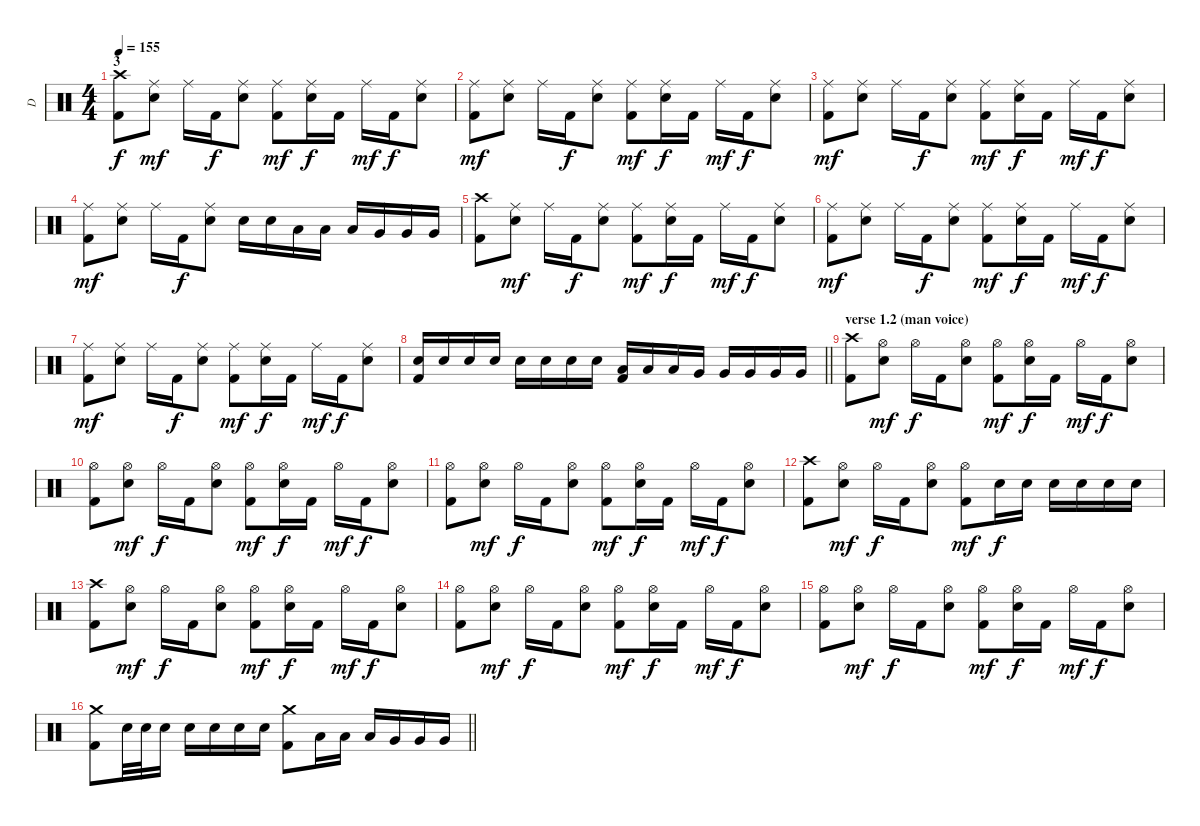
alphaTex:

\track ("D" "D") {instrument percussion}
\staff {score}
\articulation defaults
\ts (4 4)
\section ("" "3")
\tempo 155
\clef neutral
\ks c
("Kick (hit) 2" "Crash high (hit)").8{dy f} ("Electric Snare (hit)" "Ride (middle)").8{dy mf} "Ride (middle)".16 "Kick (hit) 2".16{dy f} ("Electric Snare (hit)" "Ride (middle)").8 ("Kick (hit) 2" "Ride (middle)").8{dy mf} ("Electric Snare (hit)" "Ride (middle)").16{dy f} "Kick (hit) 2".16 "Ride (middle)".16{dy mf} "Kick (hit) 2".16{dy f} ("Electric Snare (hit)" "Ride (middle)").8 |
("Kick (hit) 2" "Ride (middle)").8{dy mf} ("Electric Snare (hit)" "Ride (middle)").8 "Ride (middle)".16 "Kick (hit) 2".16{dy f} ("Electric Snare (hit)" "Ride (middle)").8 ("Kick (hit) 2" "Ride (middle)").8{dy mf} ("Electric Snare (hit)" "Ride (middle)").16{dy f} "Kick (hit) 2".16 "Ride (middle)".16{dy mf} "Kick (hit) 2".16{dy f} ("Electric Snare (hit)" "Ride (middle)").8 |
("Kick (hit) 2" "Ride (middle)").8{dy mf} ("Electric Snare (hit)" "Ride (middle)").8 "Ride (middle)".16 "Kick (hit) 2".16{dy f} ("Electric Snare (hit)" "Ride (middle)").8 ("Kick (hit) 2" "Ride (middle)").8{dy mf} ("Electric Snare (hit)" "Ride (middle)").16{dy f} "Kick (hit) 2".16 "Ride (middle)".16{dy mf} "Kick (hit) 2".16{dy f} ("Electric Snare (hit)" "Ride (middle)").8 |
("Kick (hit) 2" "Ride (middle)").8{dy mf} ("Electric Snare (hit)" "Ride (middle)").8 "Ride (middle)".16 "Kick (hit) 2".16{dy f} ("Electric Snare (hit)" "Ride (middle)").8 "Electric Snare (hit)".16 "Electric Snare (hit)".16 "Low Tom (hit)".16 "Low Tom (hit)".16 "Low Tom (hit)".16 "Very Low Tom (hit)".16 "Very Low Tom (hit)".16 "Very Low Tom (hit)".16 |
("Kick (hit) 2" "Crash high (hit)").8 ("Electric Snare (hit)" "Ride (middle)").8{dy mf} "Ride (middle)".16 "Kick (hit) 2".16{dy f} ("Electric Snare (hit)" "Ride (middle)").8 ("Kick (hit) 2" "Ride (middle)").8{dy mf} ("Electric Snare (hit)" "Ride (middle)").16{dy f} "Kick (hit) 2".16 "Ride (middle)".16{dy mf} "Kick (hit) 2".16{dy f} ("Electric Snare (hit)" "Ride (middle)").8 |
("Kick (hit) 2" "Ride (middle)").8{dy mf} ("Electric Snare (hit)" "Ride (middle)").8 "Ride (middle)".16 "Kick (hit) 2".16{dy f} ("Electric Snare (hit)" "Ride (middle)").8 ("Kick (hit) 2" "Ride (middle)").8{dy mf} ("Electric Snare (hit)" "Ride (middle)").16{dy f} "Kick (hit) 2".16 "Ride (middle)".16{dy mf} "Kick (hit) 2".16{dy f} ("Electric Snare (hit)" "Ride (middle)").8 |
("Kick (hit) 2" "Ride (middle)").8{dy mf} ("Electric Snare (hit)" "Ride (middle)").8 "Ride (middle)".16 "Kick (hit) 2".16{dy f} ("Electric Snare (hit)" "Ride (middle)").8 ("Kick (hit) 2" "Ride (middle)").8{dy mf} ("Electric Snare (hit)" "Ride (middle)").16{dy f} "Kick (hit) 2".16 "Ride (middle)".16{dy mf} "Kick (hit) 2".16{dy f} ("Electric Snare (hit)" "Ride (middle)").8 |
\barLineRight lightlight
("Electric Snare (hit)" "Kick (hit) 2").16 "Electric Snare (hit)".16 "Electric Snare (hit)".16 "Electric Snare (hit)".16 "Electric Snare (hit)".16 "Electric Snare (hit)".16 "Electric Snare (hit)".16 "Electric Snare (hit)".16 ("Low Tom (hit)" "Kick (hit) 2").16 "Low Tom (hit)".16 "Low Tom (hit)".16 "Very Low Tom (hit)".16 "Very Low Tom (hit)".16 "Very Low Tom (hit)".16 "Very Low Tom (hit)".16 "Very Low Tom (hit)".16 |
\section ("" "verse 1.2 (man voice)")
("Kick (hit) 2" "Crash high (hit)").8 ("Electric Snare (hit)" "Hi-Hat (open)").8{dy mf} "Hi-Hat (open)".16{dy f} "Kick (hit) 2".16 ("Electric Snare (hit)" "Hi-Hat (open)").8 ("Kick (hit) 2" "Hi-Hat (open)").8{dy mf} ("Electric Snare (hit)" "Hi-Hat (open)").16{dy f} "Kick (hit) 2".16 "Hi-Hat (open)".16{dy mf} "Kick (hit) 2".16{dy f} ("Electric Snare (hit)" "Hi-Hat (open)").8 |
("Kick (hit) 2" "Hi-Hat (open)").8 ("Electric Snare (hit)" "Hi-Hat (open)").8{dy mf} "Hi-Hat (open)".16{dy f} "Kick (hit) 2".16 ("Electric Snare (hit)" "Hi-Hat (open)").8 ("Kick (hit) 2" "Hi-Hat (open)").8{dy mf} ("Electric Snare (hit)" "Hi-Hat (open)").16{dy f} "Kick (hit) 2".16 "Hi-Hat (open)".16{dy mf} "Kick (hit) 2".16{dy f} ("Electric Snare (hit)" "Hi-Hat (open)").8 |
("Kick (hit) 2" "Hi-Hat (open)").8 ("Electric Snare (hit)" "Hi-Hat (open)").8{dy mf} "Hi-Hat (open)".16{dy f} "Kick (hit) 2".16 ("Electric Snare (hit)" "Hi-Hat (open)").8 ("Kick (hit) 2" "Hi-Hat (open)").8{dy mf} ("Electric Snare (hit)" "Hi-Hat (open)").16{dy f} "Kick (hit) 2".16 "Hi-Hat (open)".16{dy mf} "Kick (hit) 2".16{dy f} ("Electric Snare (hit)" "Hi-Hat (open)").8 |
("Kick (hit) 2" "Crash high (hit)").8 ("Electric Snare (hit)" "Hi-Hat (open)").8{dy mf} "Hi-Hat (open)".16{dy f} "Kick (hit) 2".16 ("Electric Snare (hit)" "Hi-Hat (open)").8 ("Kick (hit) 2" "Hi-Hat (open)").8{dy mf} "Electric Snare (hit)".16{dy f} "Electric Snare (hit)".16 "Electric Snare (hit)".16 "Electric Snare (hit)".16 "Electric Snare (hit)".16 "Electric Snare (hit)".16 |
("Kick (hit) 2" "Crash high (hit)").8 ("Electric Snare (hit)" "Hi-Hat (open)").8{dy mf} "Hi-Hat (open)".16{dy f} "Kick (hit) 2".16 ("Electric Snare (hit)" "Hi-Hat (open)").8 ("Kick (hit) 2" "Hi-Hat (open)").8{dy mf} ("Electric Snare (hit)" "Hi-Hat (open)").16{dy f} "Kick (hit) 2".16 "Hi-Hat (open)".16{dy mf} "Kick (hit) 2".16{dy f} ("Electric Snare (hit)" "Hi-Hat (open)").8 |
("Kick (hit) 2" "Hi-Hat (open)").8 ("Electric Snare (hit)" "Hi-Hat (open)").8{dy mf} "Hi-Hat (open)".16{dy f} "Kick (hit) 2".16 ("Electric Snare (hit)" "Hi-Hat (open)").8 ("Kick (hit) 2" "Hi-Hat (open)").8{dy mf} ("Electric Snare (hit)" "Hi-Hat (open)").16{dy f} "Kick (hit) 2".16 "Hi-Hat (open)".16{dy mf} "Kick (hit) 2".16{dy f} ("Electric Snare (hit)" "Hi-Hat (open)").8 |
("Kick (hit) 2" "Hi-Hat (open)").8 ("Electric Snare (hit)" "Hi-Hat (open)").8{dy mf} "Hi-Hat (open)".16{dy f} "Kick (hit) 2".16 ("Electric Snare (hit)" "Hi-Hat (open)").8 ("Kick (hit) 2" "Hi-Hat (open)").8{dy mf} ("Electric Snare (hit)" "Hi-Hat (open)").16{dy f} "Kick (hit) 2".16 "Hi-Hat (open)".16{dy mf} "Kick (hit) 2".16{dy f} ("Electric Snare (hit)" "Hi-Hat (open)").8 |
\barLineRight lightlight
("Kick (hit) 2" "Crash medium (hit)").8 "Electric Snare (hit)".32 "Electric Snare (hit)".32 "Electric Snare (hit)".16 "Electric Snare (hit)".16 "Electric Snare (hit)".16 "Electric Snare (hit)".16 "Electric Snare (hit)".16 ("Kick (hit) 2" "Crash medium (hit)").8 "Low Tom (hit)".16 "Low Tom (hit)".16 "Low Tom (hit)".16 "Very Low Tom (hit)".16 "Very Low Tom (hit)".16 "Very Low Tom (hit)".16
